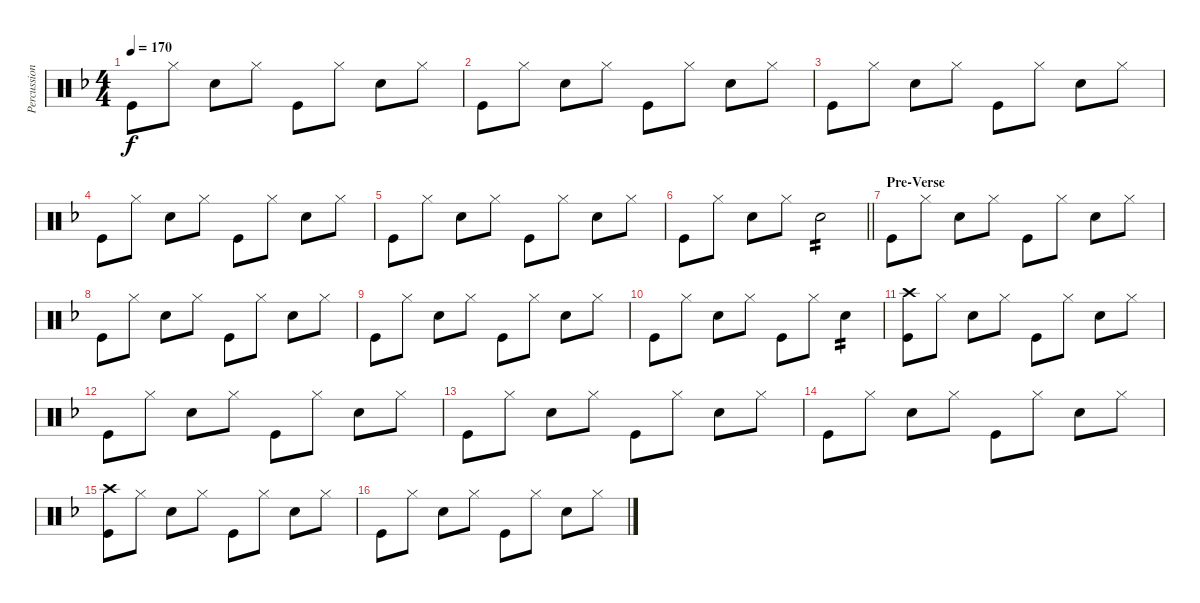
\track ("Percussion" "Percussion") {instrument percussion}
\staff {score}
\articulation defaults
\ts (4 4)
\tempo 170
\clef neutral
\ks f "Kick (hit)".8{dy f} "Hi-Hat (closed)".8 "Snare (hit) 2".8 "Hi-Hat (closed)".8 "Kick (hit)".8 "Hi-Hat (closed)".8 "Snare (hit) 2".8 "Hi-Hat (closed)".8
|
"Kick (hit)".8 "Hi-Hat (closed)".8 "Snare (hit) 2".8 "Hi-Hat (closed)".8 "Kick (hit)".8 "Hi-Hat (closed)".8 "Snare (hit) 2".8 "Hi-Hat (closed)".8 |
"Kick (hit)".8 "Hi-Hat (closed)".8 "Snare (hit) 2".8 "Hi-Hat (closed)".8 "Kick (hit)".8 "Hi-Hat (closed)".8 "Snare (hit) 2".8 "Hi-Hat (closed)".8 |
"Kick (hit)".8 "Hi-Hat (closed)".8 "Snare (hit) 2".8 "Hi-Hat (closed)".8 "Kick (hit)".8 "Hi-Hat (closed)".8 "Snare (hit) 2".8 "Hi-Hat (closed)".8 |
"Kick (hit)".8 "Hi-Hat (closed)".8 "Snare (hit) 2".8 "Hi-Hat (closed)".8 "Kick (hit)".8 "Hi-Hat (closed)".8 "Snare (hit) 2".8 "Hi-Hat (closed)".8 |
\barLineRight lightlight "Kick (hit)".8 "Hi-Hat (closed)".8 "Snare (hit) 2".8 "Hi-Hat (closed)".8 "Snare (hit) 2".2{tp 2}
|
\section ("" "Pre-Verse")
"Kick (hit)".8 "Hi-Hat (closed)".8 "Snare (hit) 2".8 "Hi-Hat (closed)".8 "Kick (hit)".8 "Hi-Hat (closed)".8 "Snare (hit) 2".8 "Hi-Hat (closed)".8 |
"Kick (hit)".8 "Hi-Hat (closed)".8 "Snare (hit) 2".8 "Hi-Hat (closed)".8 "Kick (hit)".8 "Hi-Hat (closed)".8 "Snare (hit) 2".8 "Hi-Hat (closed)".8 |
"Kick (hit)".8 "Hi-Hat (closed)".8 "Snare (hit) 2".8 "Hi-Hat (closed)".8 "Kick (hit)".8 "Hi-Hat (closed)".8 "Snare (hit) 2".8 "Hi-Hat (closed)".8 |
"Kick (hit)".8 "Hi-Hat (closed)".8 "Snare (hit) 2".8 "Hi-Hat (closed)".8 "Kick (hit)".8 "Hi-Hat (closed)".8 "Snare (hit) 2".4{tp 2} |
("Crash high (hit)" "Kick (hit)").8 "Hi-Hat (closed)".8 "Snare (hit) 2".8 "Hi-Hat (closed)".8 "Kick (hit)".8 "Hi-Hat (closed)".8 "Snare (hit) 2".8 "Hi-Hat (closed)".8 |
"Kick (hit)".8 "Hi-Hat (closed)".8 "Snare (hit) 2".8 "Hi-Hat (closed)".8 "Kick (hit)".8 "Hi-Hat (closed)".8 "Snare (hit) 2".8 "Hi-Hat (closed)".8 |
"Kick (hit)".8 "Hi-Hat (closed)".8 "Snare (hit) 2".8 "Hi-Hat (closed)".8 "Kick (hit)".8 "Hi-Hat (closed)".8 "Snare (hit) 2".8 "Hi-Hat (closed)".8 |
"Kick (hit)".8 "Hi-Hat (closed)".8 "Snare (hit) 2".8 "Hi-Hat (closed)".8 "Kick (hit)".8 "Hi-Hat (closed)".8 "Snare (hit) 2".8 "Hi-Hat (closed)".8 |
("Crash high (hit)" "Kick (hit)").8 "Hi-Hat (closed)".8 "Snare (hit) 2".8 "Hi-Hat (closed)".8 "Kick (hit)".8 "Hi-Hat (closed)".8 "Snare (hit) 2".8 "Hi-Hat (closed)".8 |
"Kick (hit)".8 "Hi-Hat (closed)".8 "Snare (hit) 2".8 "Hi-Hat (closed)".8 "Kick (hit)".8 "Hi-Hat (closed)".8 "Snare (hit) 2".8 "Hi-Hat (closed)".8
